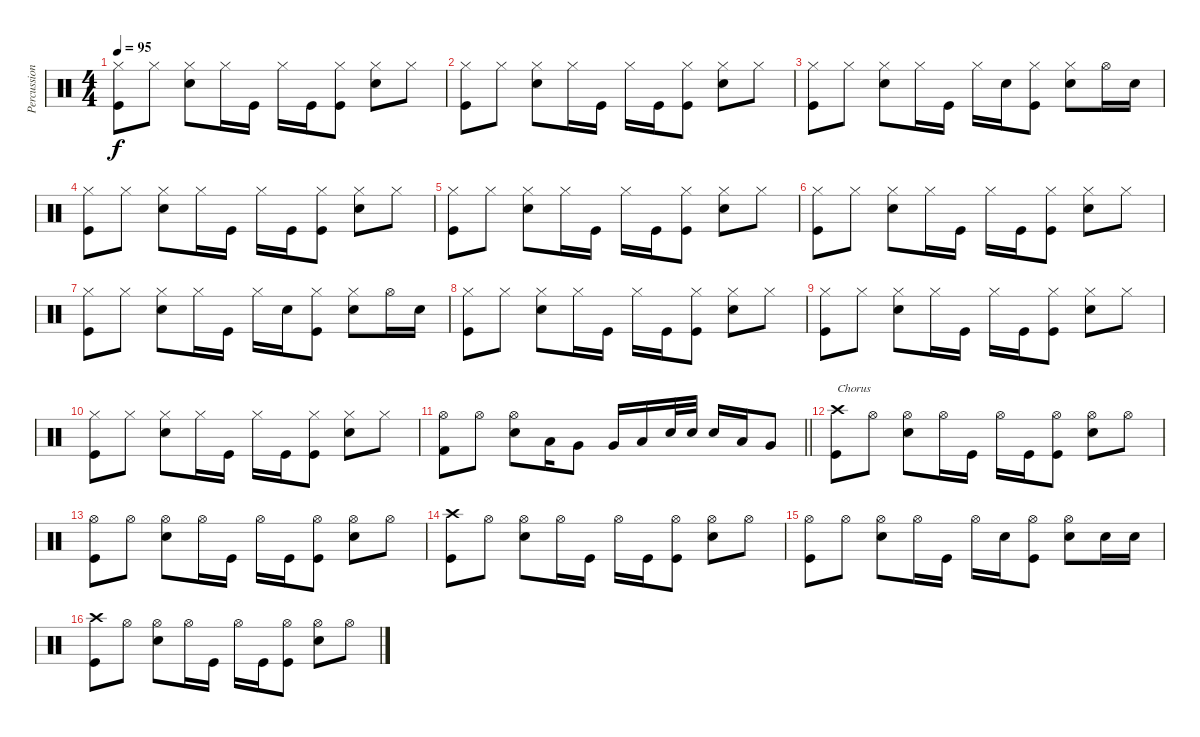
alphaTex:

\track ("Percussion" "Percussion") {instrument percussion}
\staff {score}
\articulation defaults
\ts (4 4)
\tempo 95
\clef neutral
\ks c
("Hi-Hat (closed)" "Kick (hit)").8{dy f} "Hi-Hat (closed)".8 ("Hi-Hat (closed)" "Snare (hit) 2").8 "Hi-Hat (closed)".16 "Kick (hit)".16 "Hi-Hat (closed)".16 "Kick (hit)".16 ("Hi-Hat (closed)" "Kick (hit)").8 ("Hi-Hat (closed)" "Snare (hit) 2").8 "Hi-Hat (closed)".8 |
("Hi-Hat (closed)" "Kick (hit)").8 "Hi-Hat (closed)".8 ("Hi-Hat (closed)" "Snare (hit) 2").8 "Hi-Hat (closed)".16 "Kick (hit)".16 "Hi-Hat (closed)".16 "Kick (hit)".16 ("Hi-Hat (closed)" "Kick (hit)").8 ("Hi-Hat (closed)" "Snare (hit) 2").8 "Hi-Hat (closed)".8 |
("Hi-Hat (closed)" "Kick (hit)").8 "Hi-Hat (closed)".8 ("Hi-Hat (closed)" "Snare (hit) 2").8 "Hi-Hat (closed)".16 "Kick (hit)".16 "Hi-Hat (closed)".16 "Snare (hit) 2".16 ("Hi-Hat (closed)" "Kick (hit)").8 ("Hi-Hat (closed)" "Snare (hit) 2").8 "Hi-Hat (open)".16 "Snare (hit) 2".16 |
("Hi-Hat (closed)" "Kick (hit)").8 "Hi-Hat (closed)".8 ("Hi-Hat (closed)" "Snare (hit) 2").8 "Hi-Hat (closed)".16 "Kick (hit)".16 "Hi-Hat (closed)".16 "Kick (hit)".16 ("Hi-Hat (closed)" "Kick (hit)").8 ("Hi-Hat (closed)" "Snare (hit) 2").8 "Hi-Hat (closed)".8 |
("Hi-Hat (closed)" "Kick (hit)").8 "Hi-Hat (closed)".8 ("Hi-Hat (closed)" "Snare (hit) 2").8 "Hi-Hat (closed)".16 "Kick (hit)".16 "Hi-Hat (closed)".16 "Kick (hit)".16 ("Hi-Hat (closed)" "Kick (hit)").8 ("Hi-Hat (closed)" "Snare (hit) 2").8 "Hi-Hat (closed)".8 |
("Hi-Hat (closed)" "Kick (hit)").8 "Hi-Hat (closed)".8 ("Hi-Hat (closed)" "Snare (hit) 2").8 "Hi-Hat (closed)".16 "Kick (hit)".16 "Hi-Hat (closed)".16 "Kick (hit)".16 ("Hi-Hat (closed)" "Kick (hit)").8 ("Hi-Hat (closed)" "Snare (hit) 2").8 "Hi-Hat (closed)".8 |
("Hi-Hat (closed)" "Kick (hit)").8 "Hi-Hat (closed)".8 ("Hi-Hat (closed)" "Snare (hit) 2").8 "Hi-Hat (closed)".16 "Kick (hit)".16 "Hi-Hat (closed)".16 "Snare (hit) 2".16 ("Hi-Hat (closed)" "Kick (hit)").8 ("Hi-Hat (closed)" "Snare (hit) 2").8 "Hi-Hat (open)".16 "Snare (hit) 2".16 |
("Hi-Hat (closed)" "Kick (hit)").8 "Hi-Hat (closed)".8 ("Hi-Hat (closed)" "Snare (hit) 2").8 "Hi-Hat (closed)".16 "Kick (hit)".16 "Hi-Hat (closed)".16 "Kick (hit)".16 ("Hi-Hat (closed)" "Kick (hit)").8 ("Hi-Hat (closed)" "Snare (hit) 2").8 "Hi-Hat (closed)".8 |
("Hi-Hat (closed)" "Kick (hit)").8 "Hi-Hat (closed)".8 ("Hi-Hat (closed)" "Snare (hit) 2").8 "Hi-Hat (closed)".16 "Kick (hit)".16 "Hi-Hat (closed)".16 "Kick (hit)".16 ("Hi-Hat (closed)" "Kick (hit)").8 ("Hi-Hat (closed)" "Snare (hit) 2").8 "Hi-Hat (closed)".8 |
("Hi-Hat (closed)" "Kick (hit)").8 "Hi-Hat (closed)".8 ("Hi-Hat (closed)" "Snare (hit) 2").8 "Hi-Hat (closed)".16 "Kick (hit)".16 "Hi-Hat (closed)".16 "Kick (hit)".16 ("Hi-Hat (closed)" "Kick (hit)").8 ("Hi-Hat (closed)" "Snare (hit) 2").8 "Hi-Hat (closed)".8 |
\barLineRight lightlight
("Hi-Hat (open)" "Kick (hit) 2").8 "Hi-Hat (open)".8 ("Hi-Hat (open)" "Electric Snare (hit)").8 "Low Tom (hit)".16 "Very Low Tom (hit)".8 "Very Low Tom (hit)".16 "Low Tom (hit)".16 "Electric Snare (hit)".32 "Electric Snare (hit)".32 "Electric Snare (hit)".16 "Low Tom (hit)".16 "Very Low Tom (hit)".8 |
("Crash high (hit)" "Kick (hit)").8{txt "Chorus"} "Hi-Hat (open)".8 ("Hi-Hat (open)" "Snare (hit) 2").8 "Hi-Hat (open)".16 "Kick (hit)".16 "Hi-Hat (open)".16 "Kick (hit)".16 ("Hi-Hat (open)" "Kick (hit)").8 ("Hi-Hat (open)" "Snare (hit) 2").8 "Hi-Hat (open)".8 |
("Hi-Hat (open)" "Kick (hit)").8 "Hi-Hat (open)".8 ("Hi-Hat (open)" "Snare (hit) 2").8 "Hi-Hat (open)".16 "Kick (hit)".16 "Hi-Hat (open)".16 "Kick (hit)".16 ("Hi-Hat (open)" "Kick (hit)").8 ("Hi-Hat (open)" "Snare (hit) 2").8 "Hi-Hat (open)".8 |
("Crash high (hit)" "Kick (hit)").8 "Hi-Hat (open)".8 ("Hi-Hat (open)" "Snare (hit) 2").8 "Hi-Hat (open)".16 "Kick (hit)".16 "Hi-Hat (open)".16 "Kick (hit)".16 ("Hi-Hat (open)" "Kick (hit)").8 ("Hi-Hat (open)" "Snare (hit) 2").8 "Hi-Hat (open)".8 |
("Hi-Hat (open)" "Kick (hit)").8 "Hi-Hat (open)".8 ("Hi-Hat (open)" "Snare (hit) 2").8 "Hi-Hat (open)".16 "Kick (hit)".16 "Hi-Hat (open)".16 "Snare (hit) 2".16 ("Hi-Hat (open)" "Kick (hit)").8 ("Hi-Hat (open)" "Snare (hit) 2").8 "Snare (hit) 2".16 "Snare (hit) 2".16 |
("Crash high (hit)" "Kick (hit)").8 "Hi-Hat (open)".8 ("Hi-Hat (open)" "Snare (hit) 2").8 "Hi-Hat (open)".16 "Kick (hit)".16 "Hi-Hat (open)".16 "Kick (hit)".16 ("Hi-Hat (open)" "Kick (hit)").8 ("Hi-Hat (open)" "Snare (hit) 2").8 "Hi-Hat (open)".8
